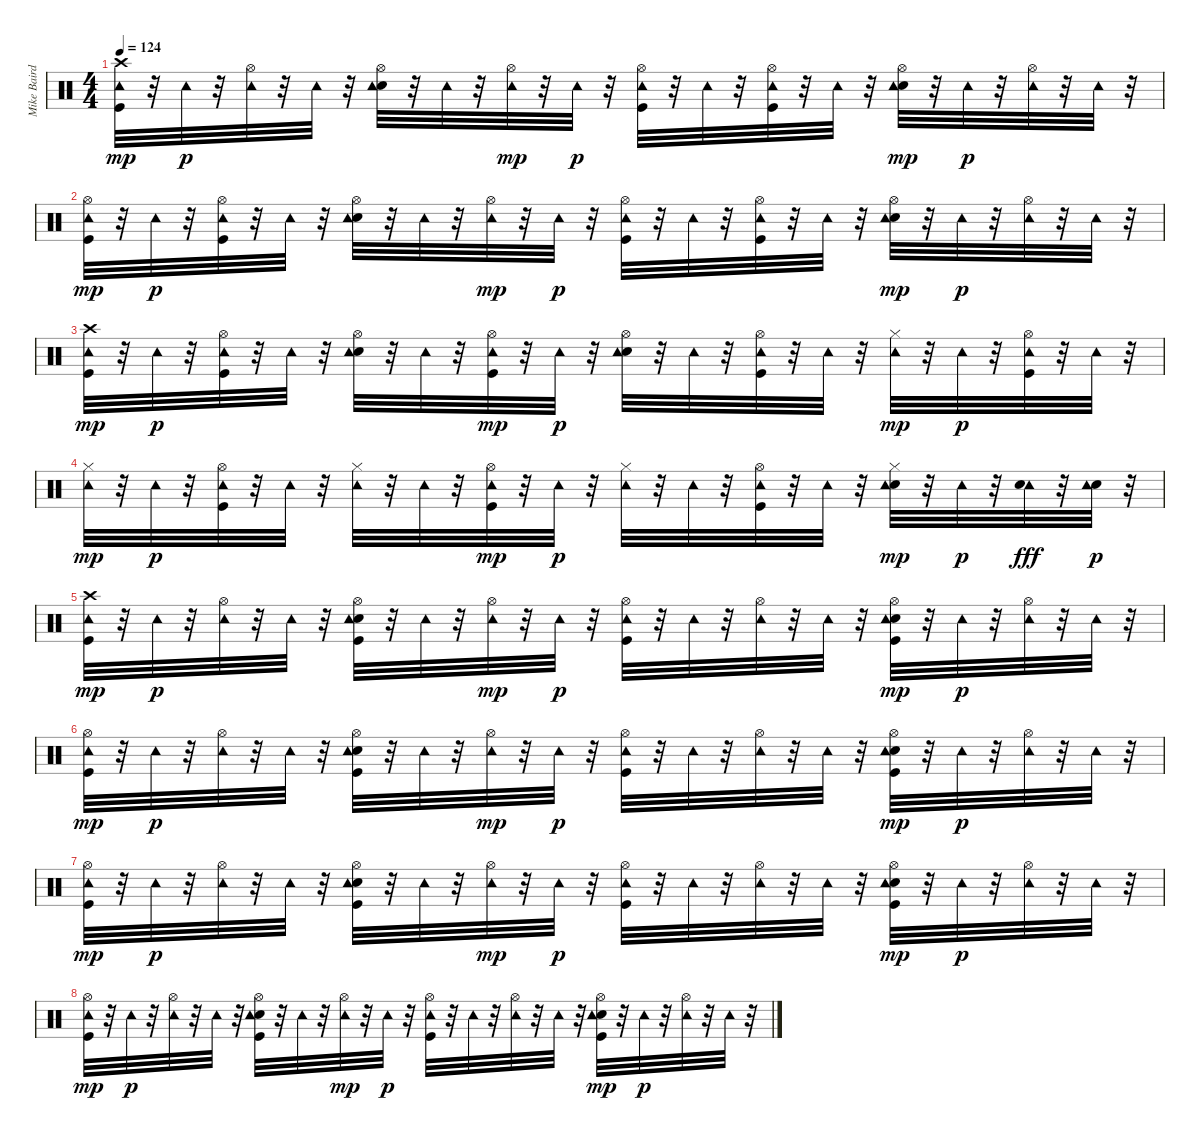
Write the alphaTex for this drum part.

\track ("Mike Baird [drums]" "Mike Baird") {instrument percussion}
\staff {score}
\articulation defaults
\ts (4 4)
\tempo 124
\clef neutral
\ks c
("Kick (hit)" "Crash high (hit)" "Tambourine (hit)").32{dy mp} r.32 "Tambourine (hit)".32{dy p} r.32 ("Hi-Hat (open)" "Tambourine (hit)").32 r.32 "Tambourine (hit)".32 r.32 ("Electric Snare (hit)" "Hi-Hat (open)" "Tambourine (hit)").32 r.32 "Tambourine (hit)".32 r.32 ("Hi-Hat (open)" "Tambourine (hit)").32{dy mp} r.32 "Tambourine (hit)".32{dy p} r.32 ("Kick (hit)" "Hi-Hat (open)" "Tambourine (hit)").32 r.32 "Tambourine (hit)".32 r.32 ("Kick (hit)" "Hi-Hat (open)" "Tambourine (hit)").32 r.32 "Tambourine (hit)".32 r.32 ("Electric Snare (hit)" "Hi-Hat (open)" "Tambourine (hit)").32{dy mp} r.32 "Tambourine (hit)".32{dy p} r.32 ("Hi-Hat (open)" "Tambourine (hit)").32 r.32 "Tambourine (hit)".32 r.32 |
("Kick (hit)" "Hi-Hat (open)" "Tambourine (hit)").32{dy mp} r.32 "Tambourine (hit)".32{dy p} r.32 ("Kick (hit)" "Hi-Hat (open)" "Tambourine (hit)").32 r.32 "Tambourine (hit)".32 r.32 ("Electric Snare (hit)" "Hi-Hat (open)" "Tambourine (hit)").32 r.32 "Tambourine (hit)".32 r.32 ("Hi-Hat (open)" "Tambourine (hit)").32{dy mp} r.32 "Tambourine (hit)".32{dy p} r.32 ("Kick (hit)" "Hi-Hat (open)" "Tambourine (hit)").32 r.32 "Tambourine (hit)".32 r.32 ("Kick (hit)" "Hi-Hat (open)" "Tambourine (hit)").32 r.32 "Tambourine (hit)".32 r.32 ("Electric Snare (hit)" "Hi-Hat (open)" "Tambourine (hit)").32{dy mp} r.32 "Tambourine (hit)".32{dy p} r.32 ("Hi-Hat (open)" "Tambourine (hit)").32 r.32 "Tambourine (hit)".32 r.32 |
("Kick (hit)" "Crash high (hit)" "Tambourine (hit)").32{dy mp} r.32 "Tambourine (hit)".32{dy p} r.32 ("Kick (hit)" "Hi-Hat (open)" "Tambourine (hit)").32 r.32 "Tambourine (hit)".32 r.32 ("Electric Snare (hit)" "Hi-Hat (open)" "Tambourine (hit)").32 r.32 "Tambourine (hit)".32 r.32 ("Kick (hit)" "Hi-Hat (open)" "Tambourine (hit)").32{dy mp} r.32 "Tambourine (hit)".32{dy p} r.32 ("Electric Snare (hit)" "Hi-Hat (open)" "Tambourine (hit)").32 r.32 "Tambourine (hit)".32 r.32 ("Kick (hit)" "Hi-Hat (open)" "Tambourine (hit)").32 r.32 "Tambourine (hit)".32 r.32 ("Hi-Hat (closed)" "Tambourine (hit)").32{dy mp} r.32 "Tambourine (hit)".32{dy p} r.32 ("Kick (hit)" "Hi-Hat (open)" "Tambourine (hit)").32 r.32 "Tambourine (hit)".32 r.32 |
("Hi-Hat (closed)" "Tambourine (hit)").32{dy mp} r.32 "Tambourine (hit)".32{dy p} r.32 ("Kick (hit)" "Hi-Hat (open)" "Tambourine (hit)").32 r.32 "Tambourine (hit)".32 r.32 ("Hi-Hat (closed)" "Tambourine (hit)").32 r.32 "Tambourine (hit)".32 r.32 ("Kick (hit)" "Hi-Hat (open)" "Tambourine (hit)").32{dy mp} r.32 "Tambourine (hit)".32{dy p} r.32 ("Hi-Hat (closed)" "Tambourine (hit)").32 r.32 "Tambourine (hit)".32 r.32 ("Kick (hit)" "Hi-Hat (open)" "Tambourine (hit)").32 r.32 "Tambourine (hit)".32 r.32 ("Electric Snare (hit)" "Hi-Hat (closed)" "Tambourine (hit)").32{dy mp} r.32 "Tambourine (hit)".32{dy p} r.32 ("Tambourine (hit)" "Electric Snare (hit)").32{dy fff} r.32 ("Electric Snare (hit)" "Tambourine (hit)").32{dy p} r.32 |
("Kick (hit)" "Crash high (hit)" "Tambourine (hit)").32{dy mp} r.32 "Tambourine (hit)".32{dy p} r.32 ("Hi-Hat (open)" "Tambourine (hit)").32 r.32 "Tambourine (hit)".32 r.32 ("Kick (hit)" "Electric Snare (hit)" "Hi-Hat (open)" "Tambourine (hit)").32 r.32 "Tambourine (hit)".32 r.32 ("Hi-Hat (open)" "Tambourine (hit)").32{dy mp} r.32 "Tambourine (hit)".32{dy p} r.32 ("Kick (hit)" "Hi-Hat (open)" "Tambourine (hit)").32 r.32 "Tambourine (hit)".32 r.32 ("Hi-Hat (open)" "Tambourine (hit)").32 r.32 "Tambourine (hit)".32 r.32 ("Kick (hit)" "Electric Snare (hit)" "Hi-Hat (open)" "Tambourine (hit)").32{dy mp} r.32 "Tambourine (hit)".32{dy p} r.32 ("Hi-Hat (open)" "Tambourine (hit)").32 r.32 "Tambourine (hit)".32 r.32 |
("Kick (hit)" "Hi-Hat (open)" "Tambourine (hit)").32{dy mp} r.32 "Tambourine (hit)".32{dy p} r.32 ("Hi-Hat (open)" "Tambourine (hit)").32 r.32 "Tambourine (hit)".32 r.32 ("Kick (hit)" "Electric Snare (hit)" "Hi-Hat (open)" "Tambourine (hit)").32 r.32 "Tambourine (hit)".32 r.32 ("Hi-Hat (open)" "Tambourine (hit)").32{dy mp} r.32 "Tambourine (hit)".32{dy p} r.32 ("Kick (hit)" "Hi-Hat (open)" "Tambourine (hit)").32 r.32 "Tambourine (hit)".32 r.32 ("Hi-Hat (open)" "Tambourine (hit)").32 r.32 "Tambourine (hit)".32 r.32 ("Kick (hit)" "Electric Snare (hit)" "Hi-Hat (open)" "Tambourine (hit)").32{dy mp} r.32 "Tambourine (hit)".32{dy p} r.32 ("Hi-Hat (open)" "Tambourine (hit)").32 r.32 "Tambourine (hit)".32 r.32 |
("Kick (hit)" "Hi-Hat (open)" "Tambourine (hit)").32{dy mp} r.32 "Tambourine (hit)".32{dy p} r.32 ("Hi-Hat (open)" "Tambourine (hit)").32 r.32 "Tambourine (hit)".32 r.32 ("Kick (hit)" "Electric Snare (hit)" "Hi-Hat (open)" "Tambourine (hit)").32 r.32 "Tambourine (hit)".32 r.32 ("Hi-Hat (open)" "Tambourine (hit)").32{dy mp} r.32 "Tambourine (hit)".32{dy p} r.32 ("Kick (hit)" "Hi-Hat (open)" "Tambourine (hit)").32 r.32 "Tambourine (hit)".32 r.32 ("Hi-Hat (open)" "Tambourine (hit)").32 r.32 "Tambourine (hit)".32 r.32 ("Kick (hit)" "Electric Snare (hit)" "Hi-Hat (open)" "Tambourine (hit)").32{dy mp} r.32 "Tambourine (hit)".32{dy p} r.32 ("Hi-Hat (open)" "Tambourine (hit)").32 r.32 "Tambourine (hit)".32 r.32 |
("Kick (hit)" "Hi-Hat (open)" "Tambourine (hit)").32{dy mp} r.32 "Tambourine (hit)".32{dy p} r.32 ("Hi-Hat (open)" "Tambourine (hit)").32 r.32 "Tambourine (hit)".32 r.32 ("Kick (hit)" "Electric Snare (hit)" "Hi-Hat (open)" "Tambourine (hit)").32 r.32 "Tambourine (hit)".32 r.32 ("Hi-Hat (open)" "Tambourine (hit)").32{dy mp} r.32 "Tambourine (hit)".32{dy p} r.32 ("Kick (hit)" "Hi-Hat (open)" "Tambourine (hit)").32 r.32 "Tambourine (hit)".32 r.32 ("Hi-Hat (open)" "Tambourine (hit)").32 r.32 "Tambourine (hit)".32 r.32 ("Kick (hit)" "Electric Snare (hit)" "Hi-Hat (open)" "Tambourine (hit)").32{dy mp} r.32 "Tambourine (hit)".32{dy p} r.32 ("Hi-Hat (open)" "Tambourine (hit)").32 r.32 "Tambourine (hit)".32 r.32
